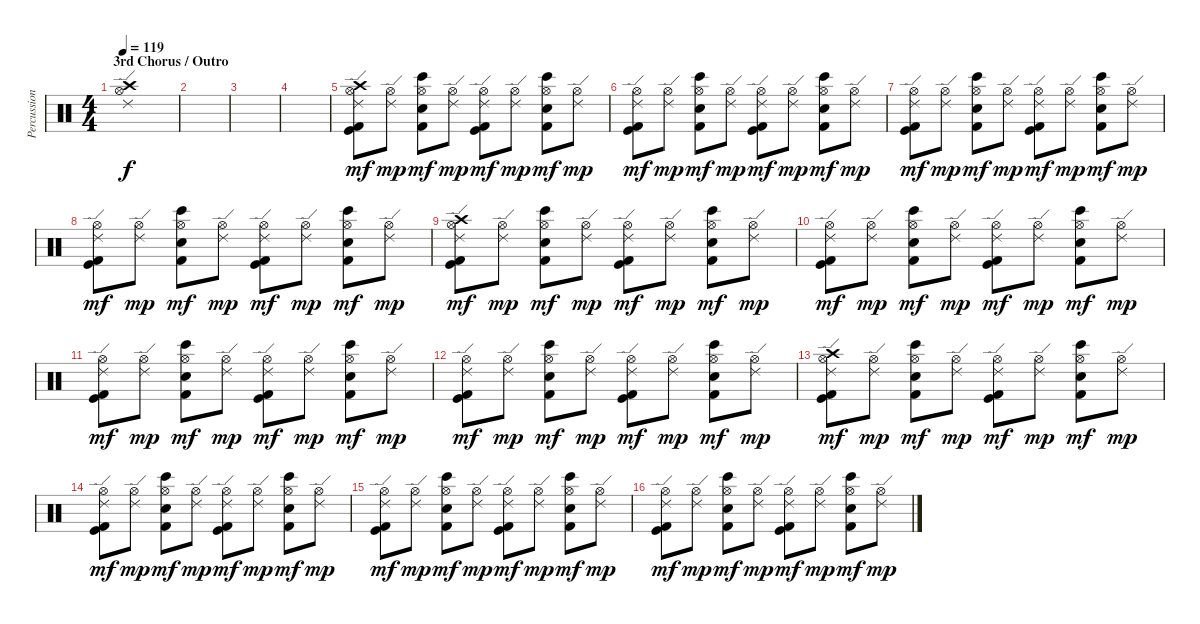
\track ("Percussion" "Percussion") {instrument percussion}
\staff {score}
\articulation defaults
\ts (4 4)
\section ("" "3rd Chorus / Outro")
\tempo 119
\clef neutral
\ks c
("Crash high (hit)" "Ride (edge) 2" "Hi-Hat (open)").1{dy f} |
|
|
|
("Crash high (hit)" "Ride (edge) 2" "Hi-Hat (open)" "Kick (hit)" "Kick (hit) 2").8{dy mf} ("Ride (edge) 2" "Hi-Hat (open)").8{dy mp} ("Bongo High (hit)" "Hi-Hat (open)" "Hand Clap (hit)" "Kick (hit) 2").8{dy mf} ("Ride (edge) 2" "Hi-Hat (open)").8{dy mp} ("Ride (edge) 2" "Hi-Hat (open)" "Kick (hit)" "Kick (hit) 2").8{dy mf} ("Ride (edge) 2" "Hi-Hat (open)").8{dy mp} ("Bongo High (hit)" "Hi-Hat (open)" "Hand Clap (hit)" "Kick (hit) 2").8{dy mf} ("Ride (edge) 2" "Hi-Hat (open)").8{dy mp} |
("Ride (edge) 2" "Hi-Hat (open)" "Kick (hit)" "Kick (hit) 2").8{dy mf} ("Ride (edge) 2" "Hi-Hat (open)").8{dy mp} ("Bongo High (hit)" "Hi-Hat (open)" "Hand Clap (hit)" "Kick (hit) 2").8{dy mf} ("Ride (edge) 2" "Hi-Hat (open)").8{dy mp} ("Ride (edge) 2" "Hi-Hat (open)" "Kick (hit)" "Kick (hit) 2").8{dy mf} ("Ride (edge) 2" "Hi-Hat (open)").8{dy mp} ("Bongo High (hit)" "Hi-Hat (open)" "Hand Clap (hit)" "Kick (hit) 2").8{dy mf} ("Ride (edge) 2" "Hi-Hat (open)").8{dy mp} |
("Ride (edge) 2" "Hi-Hat (open)" "Kick (hit)" "Kick (hit) 2").8{dy mf} ("Ride (edge) 2" "Hi-Hat (open)").8{dy mp} ("Bongo High (hit)" "Hi-Hat (open)" "Hand Clap (hit)" "Kick (hit) 2").8{dy mf} ("Ride (edge) 2" "Hi-Hat (open)").8{dy mp} ("Ride (edge) 2" "Hi-Hat (open)" "Kick (hit)" "Kick (hit) 2").8{dy mf} ("Ride (edge) 2" "Hi-Hat (open)").8{dy mp} ("Bongo High (hit)" "Hi-Hat (open)" "Hand Clap (hit)" "Kick (hit) 2").8{dy mf} ("Ride (edge) 2" "Hi-Hat (open)").8{dy mp} |
("Ride (edge) 2" "Hi-Hat (open)" "Kick (hit)" "Kick (hit) 2").8{dy mf} ("Ride (edge) 2" "Hi-Hat (open)").8{dy mp} ("Bongo High (hit)" "Hi-Hat (open)" "Hand Clap (hit)" "Kick (hit) 2").8{dy mf} ("Ride (edge) 2" "Hi-Hat (open)").8{dy mp} ("Ride (edge) 2" "Hi-Hat (open)" "Kick (hit)" "Kick (hit) 2").8{dy mf} ("Ride (edge) 2" "Hi-Hat (open)").8{dy mp} ("Bongo High (hit)" "Hi-Hat (open)" "Hand Clap (hit)" "Kick (hit) 2").8{dy mf} ("Ride (edge) 2" "Hi-Hat (open)").8{dy mp} |
("Crash high (hit)" "Ride (edge) 2" "Hi-Hat (open)" "Kick (hit)" "Kick (hit) 2").8{dy mf} ("Ride (edge) 2" "Hi-Hat (open)").8{dy mp} ("Bongo High (hit)" "Hi-Hat (open)" "Hand Clap (hit)" "Kick (hit) 2").8{dy mf} ("Ride (edge) 2" "Hi-Hat (open)").8{dy mp} ("Ride (edge) 2" "Hi-Hat (open)" "Kick (hit)" "Kick (hit) 2").8{dy mf} ("Ride (edge) 2" "Hi-Hat (open)").8{dy mp} ("Bongo High (hit)" "Hi-Hat (open)" "Hand Clap (hit)" "Kick (hit) 2").8{dy mf} ("Ride (edge) 2" "Hi-Hat (open)").8{dy mp} |
("Ride (edge) 2" "Hi-Hat (open)" "Kick (hit)" "Kick (hit) 2").8{dy mf} ("Ride (edge) 2" "Hi-Hat (open)").8{dy mp} ("Bongo High (hit)" "Hi-Hat (open)" "Hand Clap (hit)" "Kick (hit) 2").8{dy mf} ("Ride (edge) 2" "Hi-Hat (open)").8{dy mp} ("Ride (edge) 2" "Hi-Hat (open)" "Kick (hit)" "Kick (hit) 2").8{dy mf} ("Ride (edge) 2" "Hi-Hat (open)").8{dy mp} ("Bongo High (hit)" "Hi-Hat (open)" "Hand Clap (hit)" "Kick (hit) 2").8{dy mf} ("Ride (edge) 2" "Hi-Hat (open)").8{dy mp} |
("Ride (edge) 2" "Hi-Hat (open)" "Kick (hit)" "Kick (hit) 2").8{dy mf} ("Ride (edge) 2" "Hi-Hat (open)").8{dy mp} ("Bongo High (hit)" "Hi-Hat (open)" "Hand Clap (hit)" "Kick (hit) 2").8{dy mf} ("Ride (edge) 2" "Hi-Hat (open)").8{dy mp} ("Ride (edge) 2" "Hi-Hat (open)" "Kick (hit)" "Kick (hit) 2").8{dy mf} ("Ride (edge) 2" "Hi-Hat (open)").8{dy mp} ("Bongo High (hit)" "Hi-Hat (open)" "Hand Clap (hit)" "Kick (hit) 2").8{dy mf} ("Ride (edge) 2" "Hi-Hat (open)").8{dy mp} |
("Ride (edge) 2" "Hi-Hat (open)" "Kick (hit)" "Kick (hit) 2").8{dy mf} ("Ride (edge) 2" "Hi-Hat (open)").8{dy mp} ("Bongo High (hit)" "Hi-Hat (open)" "Hand Clap (hit)" "Kick (hit) 2").8{dy mf} ("Ride (edge) 2" "Hi-Hat (open)").8{dy mp} ("Ride (edge) 2" "Hi-Hat (open)" "Kick (hit)" "Kick (hit) 2").8{dy mf} ("Ride (edge) 2" "Hi-Hat (open)").8{dy mp} ("Bongo High (hit)" "Hi-Hat (open)" "Hand Clap (hit)" "Kick (hit) 2").8{dy mf} ("Ride (edge) 2" "Hi-Hat (open)").8{dy mp} |
("Crash high (hit)" "Ride (edge) 2" "Hi-Hat (open)" "Kick (hit)" "Kick (hit) 2").8{dy mf} ("Ride (edge) 2" "Hi-Hat (open)").8{dy mp} ("Bongo High (hit)" "Hi-Hat (open)" "Hand Clap (hit)" "Kick (hit) 2").8{dy mf} ("Ride (edge) 2" "Hi-Hat (open)").8{dy mp} ("Ride (edge) 2" "Hi-Hat (open)" "Kick (hit)" "Kick (hit) 2").8{dy mf} ("Ride (edge) 2" "Hi-Hat (open)").8{dy mp} ("Bongo High (hit)" "Hi-Hat (open)" "Hand Clap (hit)" "Kick (hit) 2").8{dy mf} ("Ride (edge) 2" "Hi-Hat (open)").8{dy mp} |
("Ride (edge) 2" "Hi-Hat (open)" "Kick (hit)" "Kick (hit) 2").8{dy mf} ("Ride (edge) 2" "Hi-Hat (open)").8{dy mp} ("Bongo High (hit)" "Hi-Hat (open)" "Hand Clap (hit)" "Kick (hit) 2").8{dy mf} ("Ride (edge) 2" "Hi-Hat (open)").8{dy mp} ("Ride (edge) 2" "Hi-Hat (open)" "Kick (hit)" "Kick (hit) 2").8{dy mf} ("Ride (edge) 2" "Hi-Hat (open)").8{dy mp} ("Bongo High (hit)" "Hi-Hat (open)" "Hand Clap (hit)" "Kick (hit) 2").8{dy mf} ("Ride (edge) 2" "Hi-Hat (open)").8{dy mp} |
("Ride (edge) 2" "Hi-Hat (open)" "Kick (hit)" "Kick (hit) 2").8{dy mf} ("Ride (edge) 2" "Hi-Hat (open)").8{dy mp} ("Bongo High (hit)" "Hi-Hat (open)" "Hand Clap (hit)" "Kick (hit) 2").8{dy mf} ("Ride (edge) 2" "Hi-Hat (open)").8{dy mp} ("Ride (edge) 2" "Hi-Hat (open)" "Kick (hit)" "Kick (hit) 2").8{dy mf} ("Ride (edge) 2" "Hi-Hat (open)").8{dy mp} ("Bongo High (hit)" "Hi-Hat (open)" "Hand Clap (hit)" "Kick (hit) 2").8{dy mf} ("Ride (edge) 2" "Hi-Hat (open)").8{dy mp} |
("Ride (edge) 2" "Hi-Hat (open)" "Kick (hit)" "Kick (hit) 2").8{dy mf} ("Ride (edge) 2" "Hi-Hat (open)").8{dy mp} ("Bongo High (hit)" "Hi-Hat (open)" "Hand Clap (hit)" "Kick (hit) 2").8{dy mf} ("Ride (edge) 2" "Hi-Hat (open)").8{dy mp} ("Ride (edge) 2" "Hi-Hat (open)" "Kick (hit)" "Kick (hit) 2").8{dy mf} ("Ride (edge) 2" "Hi-Hat (open)").8{dy mp} ("Bongo High (hit)" "Hi-Hat (open)" "Hand Clap (hit)" "Kick (hit) 2").8{dy mf} ("Ride (edge) 2" "Hi-Hat (open)").8{dy mp}
